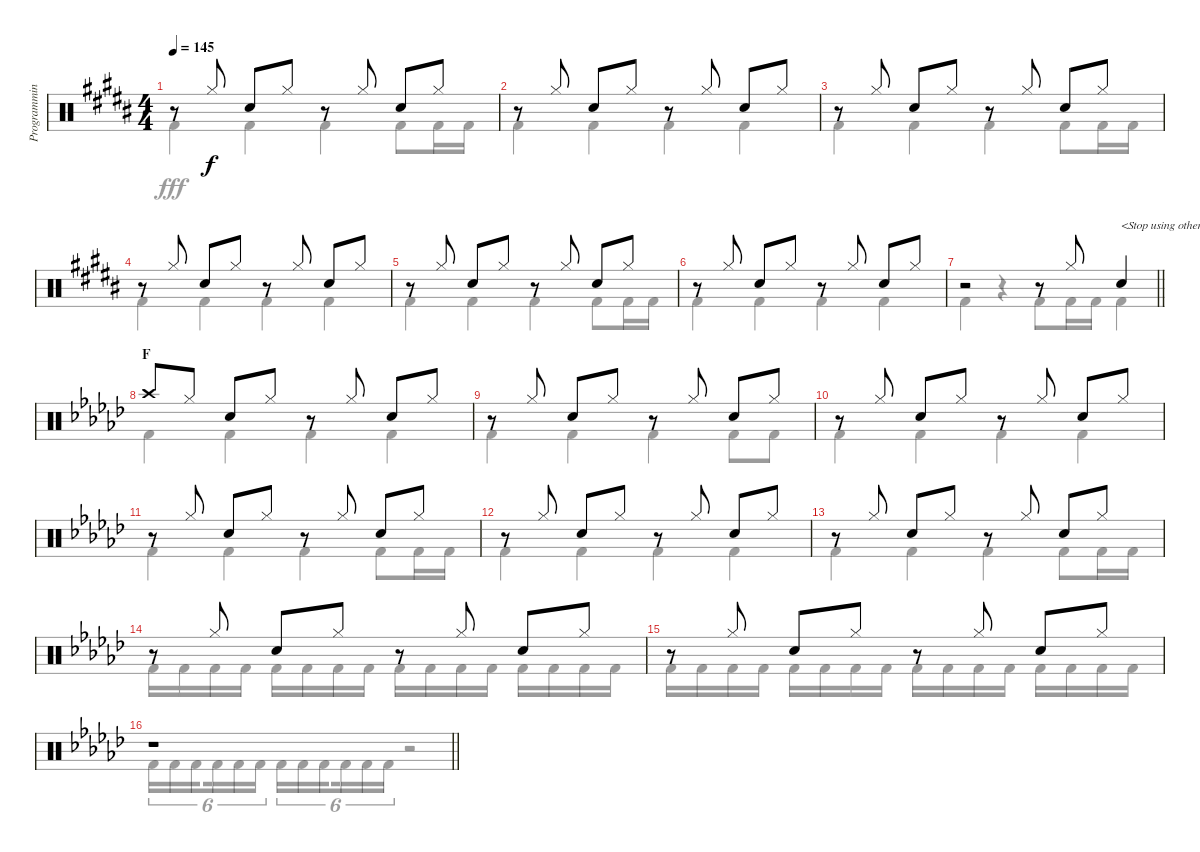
\track ("Programming Drums I" "Programmin") {instrument percussion}
\staff {score}
\articulation defaults
\voice
\ts (4 4)
\tempo 145
\clef neutral
\ks b
r.8{dy f} "Hi-Hat (closed)".8 "Snare (hit) 2".8 "Hi-Hat (closed)".8 r.8 "Hi-Hat (closed)".8 "Snare (hit) 2".8 "Hi-Hat (closed)".8 |
r.8 "Hi-Hat (closed)".8 "Snare (hit) 2".8 "Hi-Hat (closed)".8 r.8 "Hi-Hat (closed)".8 "Snare (hit) 2".8 "Hi-Hat (closed)".8 |
r.8 "Hi-Hat (closed)".8 "Snare (hit) 2".8 "Hi-Hat (closed)".8 r.8 "Hi-Hat (closed)".8 "Snare (hit) 2".8 "Hi-Hat (closed)".8 |
r.8 "Hi-Hat (closed)".8 "Snare (hit) 2".8 "Hi-Hat (closed)".8 r.8 "Hi-Hat (closed)".8 "Snare (hit) 2".8 "Hi-Hat (closed)".8 |
r.8 "Hi-Hat (closed)".8 "Snare (hit) 2".8 "Hi-Hat (closed)".8 r.8 "Hi-Hat (closed)".8 "Snare (hit) 2".8 "Hi-Hat (closed)".8 |
r.8 "Hi-Hat (closed)".8 "Snare (hit) 2".8 "Hi-Hat (closed)".8 r.8 "Hi-Hat (closed)".8 "Snare (hit) 2".8 "Hi-Hat (closed)".8 |
\barLineRight lightlight
r.2 r.8 "Hi-Hat (closed)".8 "Snare (hit) 2".4{txt "<Stop using other snare>"} |
\section ("" "F")
\ks gb "Crash high (hit)".8 "Hi-Hat (closed)".8 "Snare (hit) 2".8 "Hi-Hat (closed)".8
r.8 "Hi-Hat (closed)".8 "Snare (hit) 2".8 "Hi-Hat (closed)".8 |
r.8 "Hi-Hat (closed)".8 "Snare (hit) 2".8 "Hi-Hat (closed)".8 r.8 "Hi-Hat (closed)".8 "Snare (hit) 2".8 "Hi-Hat (closed)".8 |
r.8 "Hi-Hat (closed)".8 "Snare (hit) 2".8 "Hi-Hat (closed)".8 r.8 "Hi-Hat (closed)".8 "Snare (hit) 2".8 "Hi-Hat (closed)".8 |
r.8 "Hi-Hat (closed)".8 "Snare (hit) 2".8 "Hi-Hat (closed)".8 r.8 "Hi-Hat (closed)".8 "Snare (hit) 2".8 "Hi-Hat (closed)".8 |
r.8 "Hi-Hat (closed)".8 "Snare (hit) 2".8 "Hi-Hat (closed)".8 r.8 "Hi-Hat (closed)".8 "Snare (hit) 2".8 "Hi-Hat (closed)".8 |
r.8 "Hi-Hat (closed)".8 "Snare (hit) 2".8 "Hi-Hat (closed)".8 r.8 "Hi-Hat (closed)".8 "Snare (hit) 2".8 "Hi-Hat (closed)".8 |
r.8 "Hi-Hat (closed)".8 "Snare (hit) 2".8 "Hi-Hat (closed)".8 r.8 "Hi-Hat (closed)".8 "Snare (hit) 2".8 "Hi-Hat (closed)".8 |
r.8 "Hi-Hat (closed)".8 "Snare (hit) 2".8 "Hi-Hat (closed)".8 r.8 "Hi-Hat (closed)".8 "Snare (hit) 2".8 "Hi-Hat (closed)".8 |
\barLineRight lightlight
r.1
\voice
\clef neutral
\ottava regular
\simile none
\ks b "Kick (hit) 2".4{dy fff} "Kick (hit) 2".4 "Kick (hit) 2".4 "Kick (hit) 2".8 "Kick (hit) 2".16 "Kick (hit) 2".16
|
"Kick (hit) 2".4 "Kick (hit) 2".4 "Kick (hit) 2".4 "Kick (hit) 2".4 |
"Kick (hit) 2".4 "Kick (hit) 2".4 "Kick (hit) 2".4 "Kick (hit) 2".8 "Kick (hit) 2".16 "Kick (hit) 2".16 |
"Kick (hit) 2".4 "Kick (hit) 2".4 "Kick (hit) 2".4 "Kick (hit) 2".4 |
"Kick (hit) 2".4 "Kick (hit) 2".4 "Kick (hit) 2".4 "Kick (hit) 2".8 "Kick (hit) 2".16 "Kick (hit) 2".16 |
"Kick (hit) 2".4 "Kick (hit) 2".4 "Kick (hit) 2".4 "Kick (hit) 2".4 |
\barLineRight lightlight "Kick (hit) 2".4
r.4 "Kick (hit) 2".8 "Kick (hit) 2".16 "Kick (hit) 2".16 "Kick (hit) 2".4 |
\ks gb "Kick (hit) 2".4 "Kick (hit) 2".4 "Kick (hit) 2".4 "Kick (hit) 2".4
|
"Kick (hit) 2".4 "Kick (hit) 2".4 "Kick (hit) 2".4 "Kick (hit) 2".8 "Kick (hit) 2".8 |
"Kick (hit) 2".4 "Kick (hit) 2".4 "Kick (hit) 2".4 "Kick (hit) 2".4 |
"Kick (hit) 2".4 "Kick (hit) 2".4 "Kick (hit) 2".4 "Kick (hit) 2".8 "Kick (hit) 2".16 "Kick (hit) 2".16 |
"Kick (hit) 2".4 "Kick (hit) 2".4 "Kick (hit) 2".4 "Kick (hit) 2".4 |
"Kick (hit) 2".4 "Kick (hit) 2".4 "Kick (hit) 2".4 "Kick (hit) 2".8 "Kick (hit) 2".16 "Kick (hit) 2".16 |
"Kick (hit) 2".16 "Kick (hit) 2".16 "Kick (hit) 2".16 "Kick (hit) 2".16 "Kick (hit) 2".16 "Kick (hit) 2".16 "Kick (hit) 2".16 "Kick (hit) 2".16 "Kick (hit) 2".16 "Kick (hit) 2".16 "Kick (hit) 2".16 "Kick (hit) 2".16 "Kick (hit) 2".16 "Kick (hit) 2".16 "Kick (hit) 2".16 "Kick (hit) 2".16 |
"Kick (hit) 2".16 "Kick (hit) 2".16 "Kick (hit) 2".16 "Kick (hit) 2".16 "Kick (hit) 2".16 "Kick (hit) 2".16 "Kick (hit) 2".16 "Kick (hit) 2".16 "Kick (hit) 2".16 "Kick (hit) 2".16 "Kick (hit) 2".16 "Kick (hit) 2".16 "Kick (hit) 2".16 "Kick (hit) 2".16 "Kick (hit) 2".16 "Kick (hit) 2".16 |
\barLineRight lightlight "Kick (hit) 2".16{tu (6 4)} "Kick (hit) 2".16{tu (6 4)} "Kick (hit) 2".16{tu (6 4) beam splitsecondary} "Kick (hit) 2".16{tu (6 4)} "Kick (hit) 2".16{tu (6 4)} "Kick (hit) 2".16{tu (6 4)} "Kick (hit) 2".16{tu (6 4)} "Kick (hit) 2".16{tu (6 4)} "Kick (hit) 2".16{tu (6 4) beam splitsecondary} "Kick (hit) 2".16{tu (6 4)} "Kick (hit) 2".16{tu (6 4)} "Kick (hit) 2".16{tu (6 4)}
r.2
